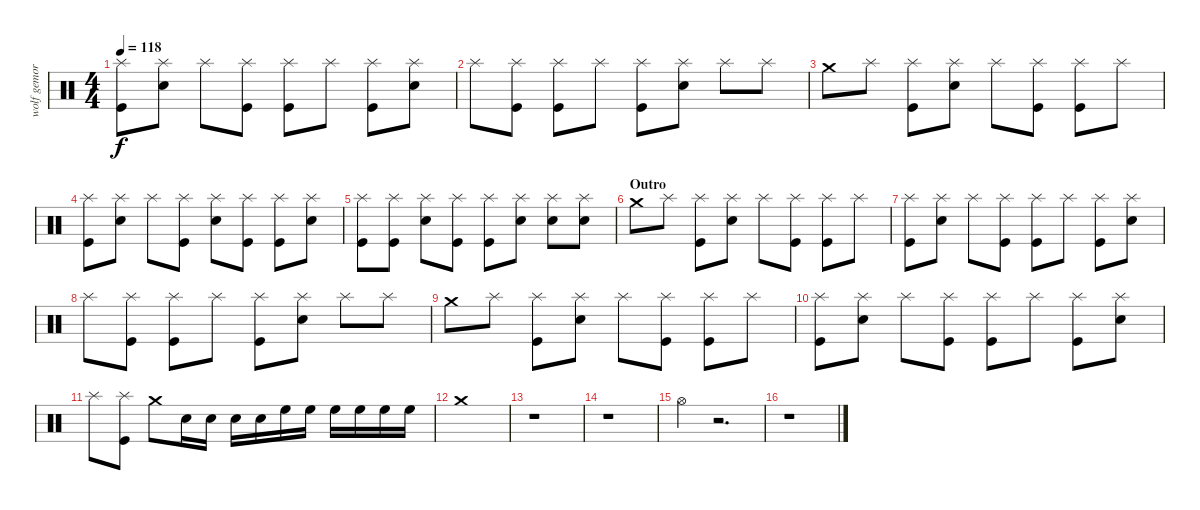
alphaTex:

\track ("wolf gemora" "wolf gemor") {instrument percussion}
\staff {score}
\articulation defaults
\ts (4 4)
\tempo 118
\clef neutral
\ks c
("Splash (hit)" "Kick (hit)").8{dy f} ("Splash (hit)" "Electric Snare (hit)").8 "Splash (hit)".8 ("Splash (hit)" "Kick (hit)").8 ("Splash (hit)" "Kick (hit)").8 "Splash (hit)".8 ("Splash (hit)" "Kick (hit)").8 ("Splash (hit)" "Electric Snare (hit)").8 |
"Splash (hit)".8 ("Splash (hit)" "Kick (hit)").8 ("Splash (hit)" "Kick (hit)").8 "Splash (hit)".8 ("Splash (hit)" "Kick (hit)").8 ("Splash (hit)" "Electric Snare (hit)").8 "Splash (hit)".8 "Splash (hit)".8 |
"Crash medium (hit)".8 "Splash (hit)".8 ("Splash (hit)" "Kick (hit)").8 ("Splash (hit)" "Electric Snare (hit)").8 "Splash (hit)".8 ("Splash (hit)" "Kick (hit)").8 ("Splash (hit)" "Kick (hit)").8 "Splash (hit)".8 |
("Splash (hit)" "Kick (hit)").8 ("Splash (hit)" "Electric Snare (hit)").8 "Splash (hit)".8 ("Splash (hit)" "Kick (hit)").8 ("Splash (hit)" "Electric Snare (hit)").8 ("Splash (hit)" "Kick (hit)").8 ("Splash (hit)" "Kick (hit)").8 ("Splash (hit)" "Electric Snare (hit)").8 |
("Splash (hit)" "Kick (hit)").8 ("Splash (hit)" "Kick (hit)").8 ("Splash (hit)" "Electric Snare (hit)").8 ("Splash (hit)" "Kick (hit)").8 ("Splash (hit)" "Kick (hit)").8 ("Splash (hit)" "Electric Snare (hit)").8 ("Splash (hit)" "Electric Snare (hit)").8 ("Splash (hit)" "Electric Snare (hit)").8 |
\section ("" "Outro")
"Crash medium (hit)".8 "Splash (hit)".8 ("Splash (hit)" "Kick (hit)").8 ("Splash (hit)" "Electric Snare (hit)").8 "Splash (hit)".8 ("Splash (hit)" "Kick (hit)").8 ("Splash (hit)" "Kick (hit)").8 "Splash (hit)".8 |
("Splash (hit)" "Kick (hit)").8 ("Splash (hit)" "Electric Snare (hit)").8 "Splash (hit)".8 ("Splash (hit)" "Kick (hit)").8 ("Splash (hit)" "Kick (hit)").8 "Splash (hit)".8 ("Splash (hit)" "Kick (hit)").8 ("Splash (hit)" "Electric Snare (hit)").8 |
"Splash (hit)".8 ("Splash (hit)" "Kick (hit)").8 ("Splash (hit)" "Kick (hit)").8 "Splash (hit)".8 ("Splash (hit)" "Kick (hit)").8 ("Splash (hit)" "Electric Snare (hit)").8 "Splash (hit)".8 "Splash (hit)".8 |
"Crash medium (hit)".8 "Splash (hit)".8 ("Splash (hit)" "Kick (hit)").8 ("Splash (hit)" "Electric Snare (hit)").8 "Splash (hit)".8 ("Splash (hit)" "Kick (hit)").8 ("Splash (hit)" "Kick (hit)").8 "Splash (hit)".8 |
("Splash (hit)" "Kick (hit)").8 ("Splash (hit)" "Electric Snare (hit)").8 "Splash (hit)".8 ("Splash (hit)" "Kick (hit)").8 ("Splash (hit)" "Kick (hit)").8 "Splash (hit)".8 ("Splash (hit)" "Kick (hit)").8 ("Splash (hit)" "Electric Snare (hit)").8 |
"Splash (hit)".8 ("Splash (hit)" "Kick (hit)").8 "Crash medium (hit)".8 "Electric Snare (hit)".16 "Electric Snare (hit)".16 "Electric Snare (hit)".16 "Electric Snare (hit)".16 "High Floor Tom (hit)".16 "High Floor Tom (hit)".16 "High Floor Tom (hit)".16 "High Floor Tom (hit)".16 "High Floor Tom (hit)".16 "High Floor Tom (hit)".16 |
"Crash medium (hit)".1 |
r.1 |
r.1 |
"Hi-Hat (open)".4{volume 8} r.2{d} |
r.1
